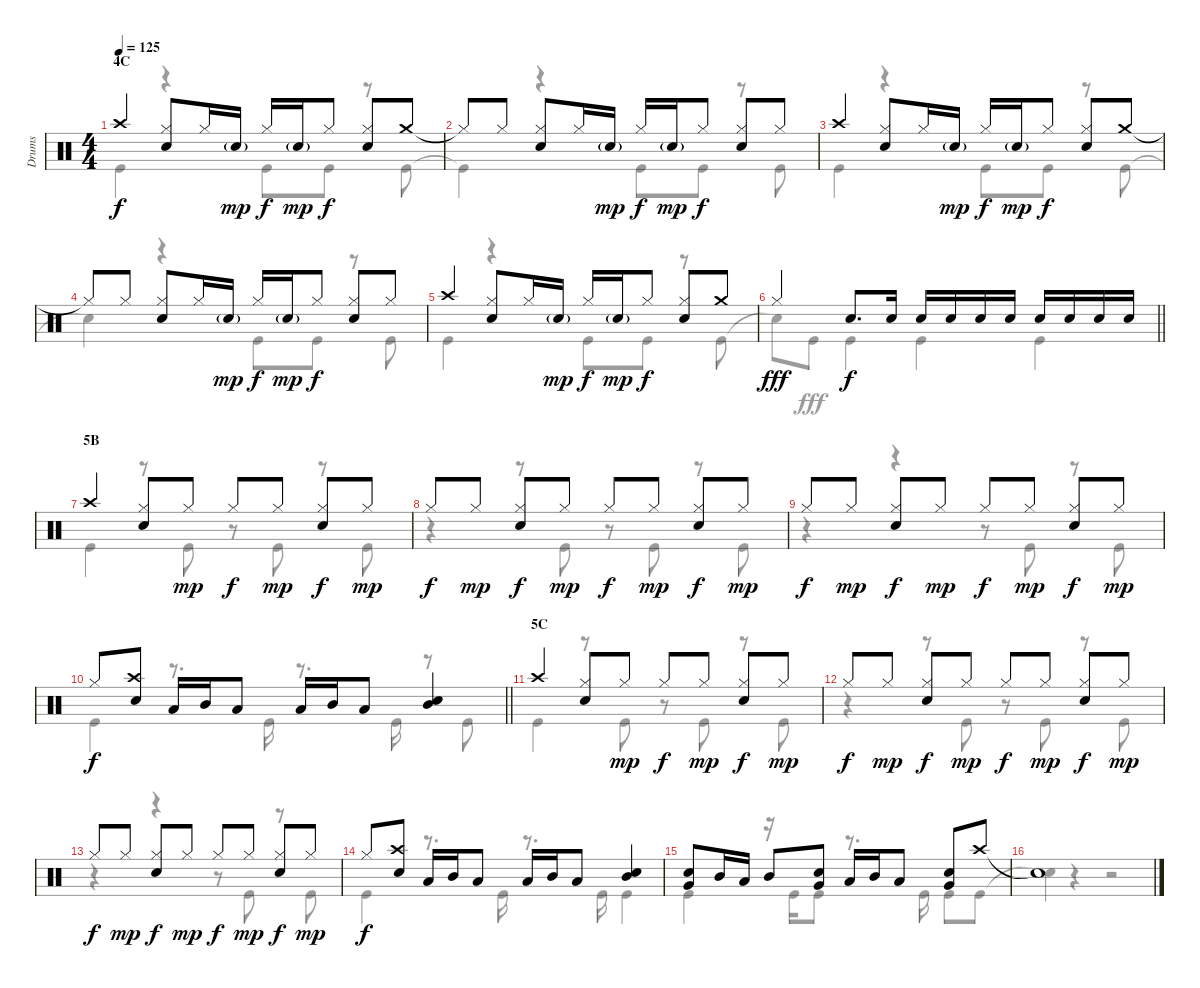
\track ("Drums" "Drums") {instrument percussion}
\staff {score}
\articulation defaults
\voice
\ts (4 4)
\section ("" "4C")
\tempo 125
\clef neutral
\ks c "Crash high (hit)".4{dy f}
("Hi-Hat (closed)" "Snare (hit) 2").8 "Hi-Hat (closed)".16 "Snare (hit) 2"{g}.16{dy mp} "Hi-Hat (closed)".16{dy f} "Snare (hit) 2"{g}.16{dy mp} "Hi-Hat (closed)".8{dy f} ("Hi-Hat (closed)" "Snare (hit) 2").8 "Crash medium (hit)".8 |
"Hi-Hat (closed)"{t}.8 "Hi-Hat (closed)".8 ("Hi-Hat (closed)" "Snare (hit) 2").8 "Hi-Hat (closed)".16 "Snare (hit) 2"{g}.16{dy mp} "Hi-Hat (closed)".16{dy f} "Snare (hit) 2"{g}.16{dy mp} "Hi-Hat (closed)".8{dy f} ("Hi-Hat (closed)" "Snare (hit) 2").8 "Hi-Hat (closed)".8 |
"Crash high (hit)".4 ("Hi-Hat (closed)" "Snare (hit) 2").8 "Hi-Hat (closed)".16 "Snare (hit) 2"{g}.16{dy mp} "Hi-Hat (closed)".16{dy f} "Snare (hit) 2"{g}.16{dy mp} "Hi-Hat (closed)".8{dy f} ("Hi-Hat (closed)" "Snare (hit) 2").8 "Crash medium (hit)".8 |
"Hi-Hat (closed)"{t}.8 "Hi-Hat (closed)".8 ("Hi-Hat (closed)" "Snare (hit) 2").8 "Hi-Hat (closed)".16 "Snare (hit) 2"{g}.16{dy mp} "Hi-Hat (closed)".16{dy f} "Snare (hit) 2"{g}.16{dy mp} "Hi-Hat (closed)".8{dy f} ("Hi-Hat (closed)" "Snare (hit) 2").8 "Hi-Hat (closed)".8 |
"Crash high (hit)".4 ("Hi-Hat (closed)" "Snare (hit) 2").8 "Hi-Hat (closed)".16 "Snare (hit) 2"{g}.16{dy mp} "Hi-Hat (closed)".16{dy f} "Snare (hit) 2"{g}.16{dy mp} "Hi-Hat (closed)".8{dy f} ("Hi-Hat (closed)" "Snare (hit) 2").8 "Crash medium (hit)".8 |
\barLineRight lightlight "Hi-Hat (closed)".4{dy fff} "Snare (hit) 2".8{d dy f} "Snare (hit) 2".16 "Snare (hit) 2".16 "Snare (hit) 2".16 "Snare (hit) 2".16 "Snare (hit) 2".16 "Snare (hit) 2".16 "Snare (hit) 2".16 "Snare (hit) 2".16 "Snare (hit) 2".16
|
\section ("" "5B")
"Crash high (hit)".4 ("Hi-Hat (closed)" "Snare (hit) 2").8 "Hi-Hat (closed)".8{dy mp} "Hi-Hat (closed)".8{dy f} "Hi-Hat (closed)".8{dy mp} ("Hi-Hat (closed)" "Snare (hit) 2").8{dy f} "Hi-Hat (closed)".8{dy mp} |
"Hi-Hat (closed)".8{dy f} "Hi-Hat (closed)".8{dy mp} ("Hi-Hat (closed)" "Snare (hit) 2").8{dy f} "Hi-Hat (closed)".8{dy mp} "Hi-Hat (closed)".8{dy f} "Hi-Hat (closed)".8{dy mp} ("Hi-Hat (closed)" "Snare (hit) 2").8{dy f} "Hi-Hat (closed)".8{dy mp} |
"Hi-Hat (closed)".8{dy f} "Hi-Hat (closed)".8{dy mp} ("Hi-Hat (closed)" "Snare (hit) 2").8{dy f} "Hi-Hat (closed)".8{dy mp} "Hi-Hat (closed)".8{dy f} "Hi-Hat (closed)".8{dy mp} ("Hi-Hat (closed)" "Snare (hit) 2").8{dy f} "Hi-Hat (closed)".8{dy mp} |
\barLineRight lightlight "Hi-Hat (closed)".8{dy f}
("Crash high (hit)" "Snare (hit) 2").8 "Low Tom (hit)".16 "Mid Tom (hit)".16 "Low Tom (hit)".8 "Low Tom (hit)".16 "Mid Tom (hit)".16 "Low Tom (hit)".8 ("Mid Tom (hit)" "Snare (hit) 2").4 |
\section ("" "5C")
"Crash high (hit)".4 ("Hi-Hat (closed)" "Snare (hit) 2").8 "Hi-Hat (closed)".8{dy mp} "Hi-Hat (closed)".8{dy f} "Hi-Hat (closed)".8{dy mp} ("Hi-Hat (closed)" "Snare (hit) 2").8{dy f} "Hi-Hat (closed)".8{dy mp} |
"Hi-Hat (closed)".8{dy f} "Hi-Hat (closed)".8{dy mp} ("Hi-Hat (closed)" "Snare (hit) 2").8{dy f} "Hi-Hat (closed)".8{dy mp} "Hi-Hat (closed)".8{dy f} "Hi-Hat (closed)".8{dy mp} ("Hi-Hat (closed)" "Snare (hit) 2").8{dy f} "Hi-Hat (closed)".8{dy mp} |
"Hi-Hat (closed)".8{dy f} "Hi-Hat (closed)".8{dy mp} ("Hi-Hat (closed)" "Snare (hit) 2").8{dy f} "Hi-Hat (closed)".8{dy mp} "Hi-Hat (closed)".8{dy f} "Hi-Hat (closed)".8{dy mp} ("Hi-Hat (closed)" "Snare (hit) 2").8{dy f} "Hi-Hat (closed)".8{dy mp} |
"Hi-Hat (closed)".8{dy f} ("Crash high (hit)" "Snare (hit) 2").8 "Low Tom (hit)".16 "Mid Tom (hit)".16 "Low Tom (hit)".8 "Low Tom (hit)".16 "Mid Tom (hit)".16 "Low Tom (hit)".8 ("Mid Tom (hit)" "Snare (hit) 2").4 |
("Snare (hit) 2" "Very Low Tom (hit)").8 "Mid Tom (hit)".16 "Low Tom (hit)".16 "Mid Tom (hit)".8 ("Snare (hit) 2" "Very Low Tom (hit)").8 "Low Tom (hit)".16 "Mid Tom (hit)".16 "Low Tom (hit)".8 ("Snare (hit) 2" "Very Low Tom (hit)").8 "Crash high (hit)".8 |
"Snare (hit)"{t}.1
\voice
\clef neutral
\ottava regular
\simile none
\ks c "Kick (hit)".4{dy f}
r.4 "Kick (hit)".8 "Kick (hit)".8 r.8 "Kick (hit)".8 |
"Kick (hit)"{t}.4 r.4 "Kick (hit)".8 "Kick (hit)".8 r.8 "Kick (hit)".8 |
"Kick (hit)".4 r.4 "Kick (hit)".8 "Kick (hit)".8 r.8 "Kick (hit)".8 |
"Snare (hit)"{t}.4 r.4 "Kick (hit)".8 "Kick (hit)".8 r.8 "Kick (hit)".8 |
"Kick (hit)".4 r.4 "Kick (hit)".8 "Kick (hit)".8 r.8 "Kick (hit)".8 |
\barLineRight lightlight "Snare (hit)"{t}.8 "Kick (hit)".8{dy fff} "Kick (hit)".4{dy f} "Kick (hit)".4 "Kick (hit)".4
|
"Kick (hit)".4 r.8 "Kick (hit)".8 r.8 "Kick (hit)".8 r.8 "Kick (hit)".8 |
r.4 r.8 "Kick (hit)".8 r.8 "Kick (hit)".8 r.8 "Kick (hit)".8 |
r.4 r.4 r.8 "Kick (hit)".8 r.8 "Kick (hit)".8 |
\barLineRight lightlight "Kick (hit)".4
r.8{d} "Kick (hit)".16 r.8{d} "Kick (hit)".16 r.8 "Kick (hit)".8 |
"Kick (hit)".4 r.8 "Kick (hit)".8 r.8 "Kick (hit)".8 r.8 "Kick (hit)".8 |
r.4 r.8 "Kick (hit)".8 r.8 "Kick (hit)".8 r.8 "Kick (hit)".8 |
r.4 r.4 r.8 "Kick (hit)".8 r.8 "Kick (hit)".8 |
"Kick (hit)".4 r.8{d} "Kick (hit)".16 r.8{d} "Kick (hit)".16 "Kick (hit)".4 |
"Kick (hit)".4 r.16 "Kick (hit)".16 "Kick (hit)".8 r.8{d} "Kick (hit)".16 "Kick (hit)".8 "Kick (hit)".8 |
"Snare (hit)"{t}.4 r.4 r.2
